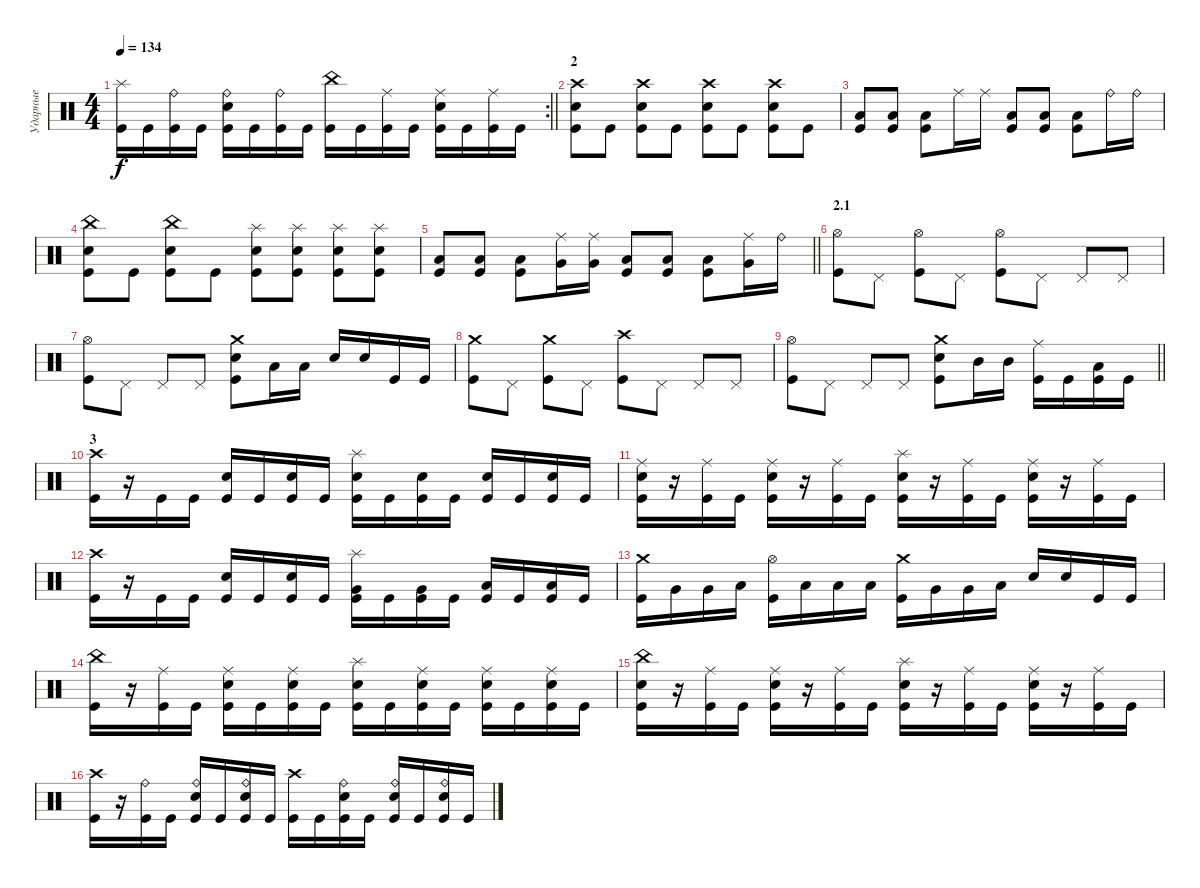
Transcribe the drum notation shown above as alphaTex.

\track ("Ударные" "Ударные") {instrument percussion}
\staff {score}
\articulation defaults
\rc 2
\ts (4 4)
\tempo 134
\clef neutral
\barLineRight lightlight
\ks c
("Splash (hit)" "Kick (hit)").16{dy f} "Kick (hit)".16 ("Ride (bell)" "Kick (hit)").16 "Kick (hit)".16 ("Ride (bell)" "Electric Snare (hit)" "Kick (hit)").16 "Kick (hit)".16 ("Ride (bell)" "Kick (hit)").16 "Kick (hit)".16 ("China (hit)" "Kick (hit)").16 "Kick (hit)".16 ("Ride (middle)" "Kick (hit)").16 "Kick (hit)".16 ("Ride (middle)" "Electric Snare (hit)" "Kick (hit)").16 "Kick (hit)".16 ("Ride (middle)" "Kick (hit)").16 "Kick (hit)".16 |
\section ("" "2")
("Crash high (hit)" "Electric Snare (hit)" "Kick (hit)").8 "Kick (hit)".8 ("Crash high (hit)" "Electric Snare (hit)" "Kick (hit)").8 "Kick (hit)".8 ("Crash high (hit)" "Electric Snare (hit)" "Kick (hit)").8 "Kick (hit)".8 ("Crash high (hit)" "Electric Snare (hit)" "Kick (hit)").8 "Kick (hit)".8 |
("Low Floor Tom (hit)" "Kick (hit)").8 ("Low Floor Tom (hit)" "Kick (hit)").8 ("Low Floor Tom (hit)" "Kick (hit)").8 "Ride (middle)".16 "Ride (middle)".16 ("Low Floor Tom (hit)" "Kick (hit)").8 ("Low Floor Tom (hit)" "Kick (hit)").8 ("Low Floor Tom (hit)" "Kick (hit)").8 "Ride (bell)".16 "Ride (bell)".16 |
("China (hit)" "Electric Snare (hit)" "Kick (hit)").8 "Kick (hit)".8 ("China (hit)" "Electric Snare (hit)" "Kick (hit)").8 "Kick (hit)".8 ("Splash (hit)" "Electric Snare (hit)" "Kick (hit)").8 ("Splash (hit)" "Electric Snare (hit)" "Kick (hit)").8 ("Splash (hit)" "Electric Snare (hit)" "Kick (hit)").8 ("Splash (hit)" "Electric Snare (hit)" "Kick (hit)").8 |
\barLineRight lightlight
("Low Floor Tom (hit)" "Kick (hit)").8 ("Low Floor Tom (hit)" "Kick (hit)").8 ("Low Floor Tom (hit)" "Kick (hit)").8 ("Ride (middle)" "Very Low Tom (hit)").16 ("Ride (middle)" "Very Low Tom (hit)").16 ("Low Floor Tom (hit)" "Kick (hit)").8 ("Low Floor Tom (hit)" "Kick (hit)").8 ("Low Floor Tom (hit)" "Kick (hit)").8 ("Ride (middle)" "Very Low Tom (hit)").16 "Ride (bell)".16 |
\section ("" "2.1")
("Hi-Hat (open)" "Kick (hit)").8 "Pedal Hi-Hat (hit)".8 ("Hi-Hat (open)" "Kick (hit)").8 "Pedal Hi-Hat (hit)".8 ("Hi-Hat (open)" "Kick (hit)").8 "Pedal Hi-Hat (hit)".8 "Pedal Hi-Hat (hit)".8 "Pedal Hi-Hat (hit)".8 |
("Hi-Hat (open)" "Kick (hit)").8 "Pedal Hi-Hat (hit)".8 "Pedal Hi-Hat (hit)".8 "Pedal Hi-Hat (hit)".8 ("Crash medium (hit)" "Electric Snare (hit)" "Kick (hit)").8 "Low Tom (hit)".16 "Low Tom (hit)".16 "Electric Snare (hit)".16 "Electric Snare (hit)".16 "Kick (hit)".16 "Kick (hit)".16 |
("Crash medium (hit)" "Kick (hit)").8 "Pedal Hi-Hat (hit)".8 ("Crash medium (hit)" "Kick (hit)").8 "Pedal Hi-Hat (hit)".8 ("Crash high (hit)" "Kick (hit)").8 "Pedal Hi-Hat (hit)".8 "Pedal Hi-Hat (hit)".8 "Pedal Hi-Hat (hit)".8 |
\barLineRight lightlight
("Hi-Hat (open)" "Kick (hit)").8 "Pedal Hi-Hat (hit)".8 "Pedal Hi-Hat (hit)".8 "Pedal Hi-Hat (hit)".8 ("Crash medium (hit)" "Electric Snare (hit)" "Kick (hit)").8 "Mid Tom (hit)".16 "Mid Tom (hit)".16 ("Ride (middle)" "Kick (hit)").16 "Kick (hit)".16 ("Low Tom (hit)" "Kick (hit)").16 "Kick (hit)".16 |
\section ("" "3")
("Crash high (hit)" "Kick (hit)").16 r.16 "Kick (hit)".16 "Kick (hit)".16 ("Electric Snare (hit)" "Kick (hit)").16 "Kick (hit)".16 ("Electric Snare (hit)" "Kick (hit)").16 "Kick (hit)".16 ("Splash (hit)" "Electric Snare (hit)" "Kick (hit)").16 "Kick (hit)".16 ("Electric Snare (hit)" "Kick (hit)").16 "Kick (hit)".16 ("Electric Snare (hit)" "Kick (hit)").16 "Kick (hit)".16 ("Electric Snare (hit)" "Kick (hit)").16 "Kick (hit)".16 |
("Ride (middle)" "Electric Snare (hit)" "Kick (hit)").16 r.16 ("Ride (middle)" "Kick (hit)").16 "Kick (hit)".16 ("Ride (middle)" "Electric Snare (hit)" "Kick (hit)").16 r.16 ("Ride (middle)" "Kick (hit)").16 "Kick (hit)".16 ("Splash (hit)" "Electric Snare (hit)" "Kick (hit)").16 r.16 ("Ride (middle)" "Kick (hit)").16 "Kick (hit)".16 ("Ride (middle)" "Electric Snare (hit)" "Kick (hit)").16 r.16 ("Ride (middle)" "Kick (hit)").16 "Kick (hit)".16 |
("Crash high (hit)" "Kick (hit)").16 r.16 "Kick (hit)".16 "Kick (hit)".16 ("Electric Snare (hit)" "Kick (hit)").16 "Kick (hit)".16 ("Electric Snare (hit)" "Kick (hit)").16 "Kick (hit)".16 ("Splash (hit)" "Very Low Tom (hit)" "Kick (hit)").16 "Kick (hit)".16 ("Very Low Tom (hit)" "Kick (hit)").16 "Kick (hit)".16 ("Low Tom (hit)" "Kick (hit)").16 "Kick (hit)".16 ("Low Tom (hit)" "Kick (hit)").16 "Kick (hit)".16 |
("Crash medium (hit)" "Kick (hit)").16 "Very Low Tom (hit)".16 "Very Low Tom (hit)".16 "Low Floor Tom (hit)".16 ("Hi-Hat (open)" "Kick (hit)").16 "Low Tom (hit)".16 "Low Tom (hit)".16 "Low Tom (hit)".16 ("Crash medium (hit)" "Kick (hit)").16 "Very Low Tom (hit)".16 "Very Low Tom (hit)".16 "Low Floor Tom (hit)".16 "Electric Snare (hit)".16 "Electric Snare (hit)".16 "Kick (hit)".16 "Kick (hit)".16 |
("China (hit)" "Kick (hit)").16 r.16 ("Ride (middle)" "Kick (hit)").16 "Kick (hit)".16 ("Ride (middle)" "Electric Snare (hit)" "Kick (hit)").16 "Kick (hit)".16 ("Ride (middle)" "Electric Snare (hit)" "Kick (hit)").16 "Kick (hit)".16 ("Splash (hit)" "Electric Snare (hit)" "Kick (hit)").16 "Kick (hit)".16 ("Ride (middle)" "Electric Snare (hit)" "Kick (hit)").16 "Kick (hit)".16 ("Ride (middle)" "Electric Snare (hit)" "Kick (hit)").16 "Kick (hit)".16 ("Ride (middle)" "Electric Snare (hit)" "Kick (hit)").16 "Kick (hit)".16 |
("China (hit)" "Electric Snare (hit)" "Kick (hit)").16 r.16 ("Ride (middle)" "Kick (hit)").16 "Kick (hit)".16 ("Ride (middle)" "Electric Snare (hit)" "Kick (hit)").16 r.16 ("Ride (middle)" "Kick (hit)").16 "Kick (hit)".16 ("Splash (hit)" "Electric Snare (hit)" "Kick (hit)").16 r.16 ("Ride (middle)" "Kick (hit)").16 "Kick (hit)".16 ("Ride (middle)" "Electric Snare (hit)" "Kick (hit)").16 r.16 ("Ride (middle)" "Kick (hit)").16 "Kick (hit)".16 |
("Crash high (hit)" "Kick (hit)").16 r.16 ("Ride (bell)" "Kick (hit)").16 "Kick (hit)".16 ("Ride (bell)" "Electric Snare (hit)" "Kick (hit)").16 "Kick (hit)".16 ("Ride (bell)" "Electric Snare (hit)" "Kick (hit)").16 "Kick (hit)".16 ("Crash high (hit)" "Kick (hit)").16 "Kick (hit)".16 ("Ride (bell)" "Electric Snare (hit)" "Kick (hit)").16 "Kick (hit)".16 ("Ride (bell)" "Electric Snare (hit)" "Kick (hit)").16 "Kick (hit)".16 ("Ride (bell)" "Electric Snare (hit)" "Kick (hit)").16 "Kick (hit)".16
